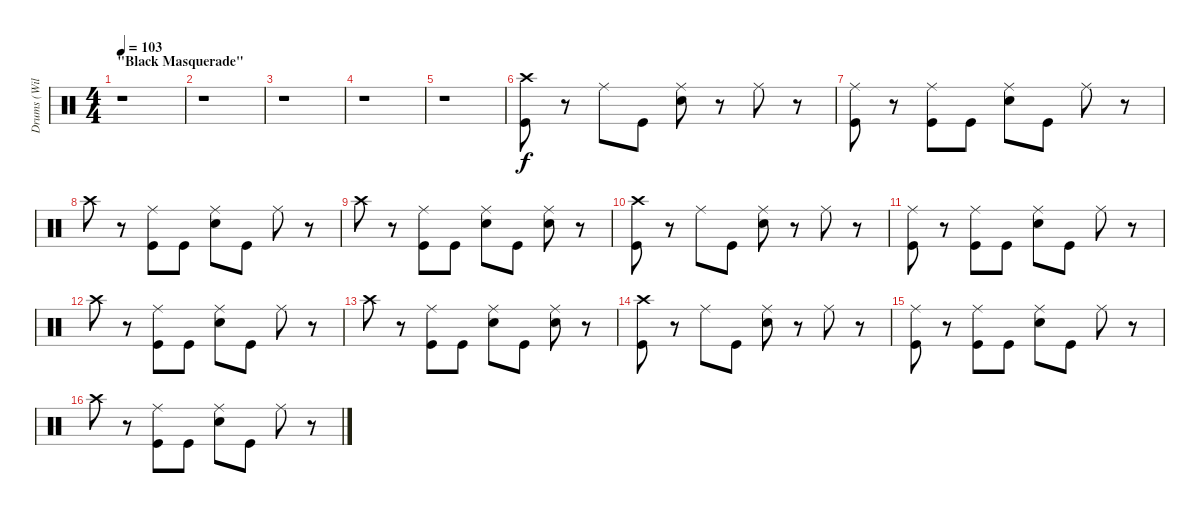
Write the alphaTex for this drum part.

\track ("Drums (William Ward)" "Drums (Wil") {instrument percussion}
\staff {score}
\articulation defaults
\ts (4 4)
\section ("" "\"Black Masquerade\"")
\tempo 103
\clef neutral
\ks c
r.1{dy f} |
r.1 |
r.1 |
r.1 |
r.1 |
("Crash high (hit)" "Kick (hit)").8 r.8 "Ride (middle)".8 "Kick (hit)".8 ("Ride (middle)" "Electric Snare (hit)").8 r.8 "Ride (middle)".8 r.8 |
("Ride (middle)" "Kick (hit)").8 r.8 ("Ride (middle)" "Kick (hit)").8 "Kick (hit)".8 ("Ride (middle)" "Electric Snare (hit)").8 "Kick (hit)".8 "Ride (middle)".8 r.8 |
"Crash high (hit)".8 r.8 ("Ride (middle)" "Kick (hit)").8 "Kick (hit)".8 ("Ride (middle)" "Electric Snare (hit)").8 "Kick (hit)".8 "Ride (middle)".8 r.8 |
"Crash high (hit)".8 r.8 ("Ride (middle)" "Kick (hit)").8 "Kick (hit)".8 ("Ride (middle)" "Electric Snare (hit)").8 "Kick (hit)".8 ("Ride (middle)" "Electric Snare (hit)").8 r.8 |
("Crash high (hit)" "Kick (hit)").8 r.8 "Ride (middle)".8 "Kick (hit)".8 ("Ride (middle)" "Electric Snare (hit)").8 r.8 "Ride (middle)".8 r.8 |
("Ride (middle)" "Kick (hit)").8 r.8 ("Ride (middle)" "Kick (hit)").8 "Kick (hit)".8 ("Ride (middle)" "Electric Snare (hit)").8 "Kick (hit)".8 "Ride (middle)".8 r.8 |
"Crash high (hit)".8 r.8 ("Ride (middle)" "Kick (hit)").8 "Kick (hit)".8 ("Ride (middle)" "Electric Snare (hit)").8 "Kick (hit)".8 "Ride (middle)".8 r.8 |
"Crash high (hit)".8 r.8 ("Ride (middle)" "Kick (hit)").8 "Kick (hit)".8 ("Ride (middle)" "Electric Snare (hit)").8 "Kick (hit)".8 ("Ride (middle)" "Electric Snare (hit)").8 r.8 |
("Crash high (hit)" "Kick (hit)").8 r.8 "Ride (middle)".8 "Kick (hit)".8 ("Ride (middle)" "Electric Snare (hit)").8 r.8 "Ride (middle)".8 r.8 |
("Ride (middle)" "Kick (hit)").8 r.8 ("Ride (middle)" "Kick (hit)").8 "Kick (hit)".8 ("Ride (middle)" "Electric Snare (hit)").8 "Kick (hit)".8 "Ride (middle)".8 r.8 |
"Crash high (hit)".8 r.8 ("Ride (middle)" "Kick (hit)").8 "Kick (hit)".8 ("Ride (middle)" "Electric Snare (hit)").8 "Kick (hit)".8 "Ride (middle)".8 r.8
